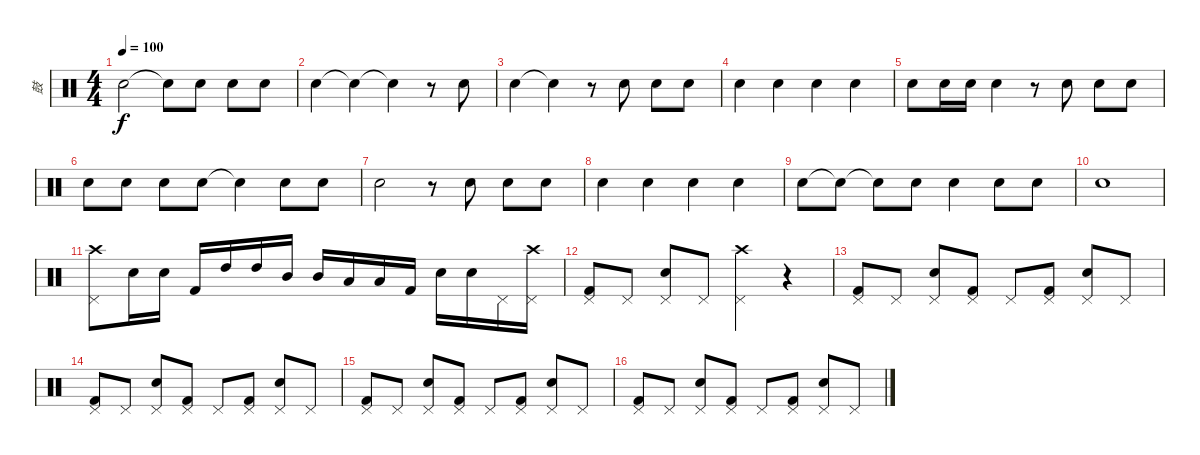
\track ("鼓" "鼓") {instrument percussion}
\staff {score}
\articulation defaults
\ts (4 4)
\tempo 100
\clef neutral
\ks c "Snare (hit)".2{dy f} "Snare (hit)"{t}.8 "Snare (hit)".8 "Snare (hit)".8 "Snare (hit)".8
|
"Snare (hit)".4 "Snare (hit)"{t}.4 "Snare (hit)"{t}.4 r.8 "Snare (hit)".8 |
"Snare (hit)".4 "Snare (hit)"{t}.4 r.8 "Snare (hit)".8 "Snare (hit)".8 "Snare (hit)".8 |
"Snare (hit)".4 "Snare (hit)".4 "Snare (hit)".4 "Snare (hit)".4 |
"Snare (hit)".8 "Snare (hit)".16 "Snare (hit)".16 "Snare (hit)".4 r.8 "Snare (hit)".8 "Snare (hit)".8 "Snare (hit)".8 |
"Snare (hit)".8 "Snare (hit)".8 "Snare (hit)".8 "Snare (hit)".8 "Snare (hit)"{t}.4 "Snare (hit)".8 "Snare (hit)".8 |
"Snare (hit)".2 r.8 "Snare (hit)".8 "Snare (hit)".8 "Snare (hit)".8 |
"Snare (hit)".4 "Snare (hit)".4 "Snare (hit)".4 "Snare (hit)".4 |
"Snare (hit)".8 "Snare (hit)"{t}.8 "Snare (hit)"{t}.8 "Snare (hit)".8 "Snare (hit)".4 "Snare (hit)".8 "Snare (hit)".8 |
"Snare (hit)".1 |
("Pedal Hi-Hat (hit)" "Crash high (hit)").8 "Snare (hit) 2".16 "Snare (hit) 2".16 "Kick (hit) 2".16 "High Tom (hit)".16 "High Tom (hit)".16 "Mid Tom (hit)".16 "Mid Tom (hit)".16 "Low Tom (hit)".16 "Low Tom (hit)".16 "Kick (hit) 2".16 "Snare (hit) 2".16 "Snare (hit) 2".16 "Pedal Hi-Hat (hit)".16 ("Pedal Hi-Hat (hit)" "Crash high (hit)").16 |
("Pedal Hi-Hat (hit)" "Kick (hit) 2").8 "Pedal Hi-Hat (hit)".8 ("Pedal Hi-Hat (hit)" "Snare (hit) 2").8 "Pedal Hi-Hat (hit)".8 ("Pedal Hi-Hat (hit)" "Crash high (hit)").4 r.4 |
("Pedal Hi-Hat (hit)" "Kick (hit) 2").8 "Pedal Hi-Hat (hit)".8 ("Pedal Hi-Hat (hit)" "Snare (hit) 2").8 ("Pedal Hi-Hat (hit)" "Kick (hit) 2").8 "Pedal Hi-Hat (hit)".8 ("Pedal Hi-Hat (hit)" "Kick (hit) 2").8 ("Pedal Hi-Hat (hit)" "Snare (hit) 2").8 "Pedal Hi-Hat (hit)".8 |
("Pedal Hi-Hat (hit)" "Kick (hit) 2").8 "Pedal Hi-Hat (hit)".8 ("Pedal Hi-Hat (hit)" "Snare (hit) 2").8 ("Pedal Hi-Hat (hit)" "Kick (hit) 2").8 "Pedal Hi-Hat (hit)".8 ("Pedal Hi-Hat (hit)" "Kick (hit) 2").8 ("Pedal Hi-Hat (hit)" "Snare (hit) 2").8 "Pedal Hi-Hat (hit)".8 |
("Pedal Hi-Hat (hit)" "Kick (hit) 2").8 "Pedal Hi-Hat (hit)".8 ("Pedal Hi-Hat (hit)" "Snare (hit) 2").8 ("Pedal Hi-Hat (hit)" "Kick (hit) 2").8 "Pedal Hi-Hat (hit)".8 ("Pedal Hi-Hat (hit)" "Kick (hit) 2").8 ("Pedal Hi-Hat (hit)" "Snare (hit) 2").8 "Pedal Hi-Hat (hit)".8 |
("Pedal Hi-Hat (hit)" "Kick (hit) 2").8 "Pedal Hi-Hat (hit)".8 ("Pedal Hi-Hat (hit)" "Snare (hit) 2").8 ("Pedal Hi-Hat (hit)" "Kick (hit) 2").8 "Pedal Hi-Hat (hit)".8 ("Pedal Hi-Hat (hit)" "Kick (hit) 2").8 ("Pedal Hi-Hat (hit)" "Snare (hit) 2").8 "Pedal Hi-Hat (hit)".8
